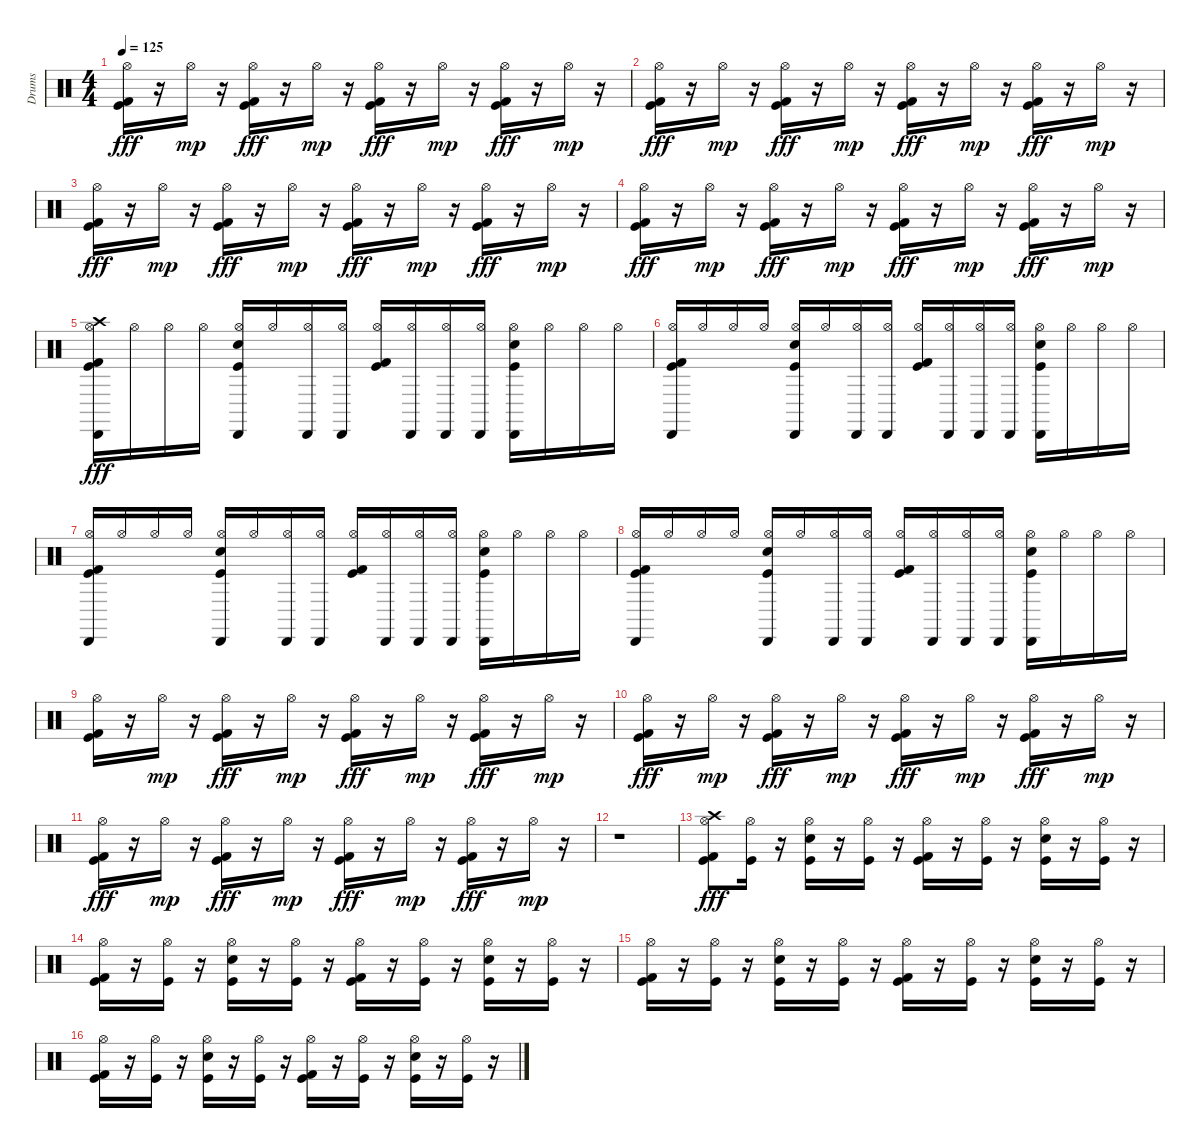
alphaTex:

\track ("Drums" "Drums") {instrument percussion}
\staff {score}
\articulation defaults
\ts (4 4)
\tempo 125
\clef neutral
\ks c
("Kick (hit)" "Kick (hit) 2" "Hi-Hat (open)").16{dy fff} r.16 "Hi-Hat (open)".16{dy mp} r.16 ("Kick (hit) 2" "Kick (hit)" "Hi-Hat (open)").16{dy fff} r.16 "Hi-Hat (open)".16{dy mp} r.16 ("Kick (hit) 2" "Kick (hit)" "Hi-Hat (open)").16{dy fff} r.16 "Hi-Hat (open)".16{dy mp} r.16 ("Kick (hit) 2" "Kick (hit)" "Hi-Hat (open)").16{dy fff} r.16 "Hi-Hat (open)".16{dy mp} r.16 |
("Hi-Hat (open)" "Kick (hit) 2" "Kick (hit)").16{dy fff} r.16 "Hi-Hat (open)".16{dy mp} r.16 ("Kick (hit) 2" "Kick (hit)" "Hi-Hat (open)").16{dy fff} r.16 "Hi-Hat (open)".16{dy mp} r.16 ("Kick (hit) 2" "Kick (hit)" "Hi-Hat (open)").16{dy fff} r.16 "Hi-Hat (open)".16{dy mp} r.16 ("Kick (hit) 2" "Kick (hit)" "Hi-Hat (open)").16{dy fff} r.16 "Hi-Hat (open)".16{dy mp} r.16 |
("Hi-Hat (open)" "Kick (hit) 2" "Kick (hit)").16{dy fff} r.16 "Hi-Hat (open)".16{dy mp} r.16 ("Kick (hit) 2" "Kick (hit)" "Hi-Hat (open)").16{dy fff} r.16 "Hi-Hat (open)".16{dy mp} r.16 ("Kick (hit) 2" "Kick (hit)" "Hi-Hat (open)").16{dy fff} r.16 "Hi-Hat (open)".16{dy mp} r.16 ("Kick (hit) 2" "Kick (hit)" "Hi-Hat (open)").16{dy fff} r.16 "Hi-Hat (open)".16{dy mp} r.16 |
("Hi-Hat (open)" "Kick (hit) 2" "Kick (hit)").16{dy fff} r.16 "Hi-Hat (open)".16{dy mp} r.16 ("Kick (hit) 2" "Kick (hit)" "Hi-Hat (open)").16{dy fff} r.16 "Hi-Hat (open)".16{dy mp} r.16 ("Kick (hit) 2" "Kick (hit)" "Hi-Hat (open)").16{dy fff} r.16 "Hi-Hat (open)".16{dy mp} r.16 ("Kick (hit) 2" "Kick (hit)" "Hi-Hat (open)").16{dy fff} r.16 "Hi-Hat (open)".16{dy mp} r.16 |
("Kick (hit) 2" "Kick (hit)" "Cabasa (hit)" "Crash high (hit)" "Hi-Hat (open)").16{dy fff} "Hi-Hat (open)".16 "Hi-Hat (open)".16 "Hi-Hat (open)".16 ("Kick (hit)" "Cabasa (hit)" "Snare (hit) 2" "Hi-Hat (open)").16 "Hi-Hat (open)".16 ("Cabasa (hit)" "Hi-Hat (open)").16 ("Cabasa (hit)" "Hi-Hat (open)").16 ("Kick (hit) 2" "Kick (hit)" "Hi-Hat (open)").16 ("Cabasa (hit)" "Hi-Hat (open)").16 ("Cabasa (hit)" "Hi-Hat (open)").16 ("Cabasa (hit)" "Hi-Hat (open)").16 ("Kick (hit)" "Cabasa (hit)" "Snare (hit) 2" "Hi-Hat (open)").16 "Hi-Hat (open)".16 "Hi-Hat (open)".16 "Hi-Hat (open)".16 |
("Kick (hit) 2" "Kick (hit)" "Cabasa (hit)" "Hi-Hat (open)").16 "Hi-Hat (open)".16 "Hi-Hat (open)".16 "Hi-Hat (open)".16 ("Kick (hit)" "Cabasa (hit)" "Snare (hit) 2" "Hi-Hat (open)").16 "Hi-Hat (open)".16 ("Cabasa (hit)" "Hi-Hat (open)").16 ("Cabasa (hit)" "Hi-Hat (open)").16 ("Kick (hit) 2" "Kick (hit)" "Hi-Hat (open)").16 ("Cabasa (hit)" "Hi-Hat (open)").16 ("Cabasa (hit)" "Hi-Hat (open)").16 ("Cabasa (hit)" "Hi-Hat (open)").16 ("Kick (hit)" "Cabasa (hit)" "Snare (hit) 2" "Hi-Hat (open)").16 "Hi-Hat (open)".16 "Hi-Hat (open)".16 "Hi-Hat (open)".16 |
("Kick (hit) 2" "Kick (hit)" "Cabasa (hit)" "Hi-Hat (open)").16 "Hi-Hat (open)".16 "Hi-Hat (open)".16 "Hi-Hat (open)".16 ("Kick (hit)" "Cabasa (hit)" "Snare (hit) 2" "Hi-Hat (open)").16 "Hi-Hat (open)".16 ("Cabasa (hit)" "Hi-Hat (open)").16 ("Cabasa (hit)" "Hi-Hat (open)").16 ("Kick (hit) 2" "Kick (hit)" "Hi-Hat (open)").16 ("Cabasa (hit)" "Hi-Hat (open)").16 ("Cabasa (hit)" "Hi-Hat (open)").16 ("Cabasa (hit)" "Hi-Hat (open)").16 ("Kick (hit)" "Cabasa (hit)" "Snare (hit) 2" "Hi-Hat (open)").16 "Hi-Hat (open)".16 "Hi-Hat (open)".16 "Hi-Hat (open)".16 |
("Kick (hit) 2" "Kick (hit)" "Cabasa (hit)" "Hi-Hat (open)").16 "Hi-Hat (open)".16 "Hi-Hat (open)".16 "Hi-Hat (open)".16 ("Kick (hit)" "Cabasa (hit)" "Snare (hit) 2" "Hi-Hat (open)").16 "Hi-Hat (open)".16 ("Cabasa (hit)" "Hi-Hat (open)").16 ("Cabasa (hit)" "Hi-Hat (open)").16 ("Kick (hit) 2" "Kick (hit)" "Hi-Hat (open)").16 ("Cabasa (hit)" "Hi-Hat (open)").16 ("Cabasa (hit)" "Hi-Hat (open)").16 ("Cabasa (hit)" "Hi-Hat (open)").16 ("Kick (hit)" "Cabasa (hit)" "Snare (hit) 2" "Hi-Hat (open)").16 "Hi-Hat (open)".16 "Hi-Hat (open)".16 "Hi-Hat (open)".16 |
("Kick (hit)" "Kick (hit) 2" "Hi-Hat (open)").16 r.16 "Hi-Hat (open)".16{dy mp} r.16 ("Kick (hit) 2" "Kick (hit)" "Hi-Hat (open)").16{dy fff} r.16 "Hi-Hat (open)".16{dy mp} r.16 ("Kick (hit) 2" "Kick (hit)" "Hi-Hat (open)").16{dy fff} r.16 "Hi-Hat (open)".16{dy mp} r.16 ("Kick (hit) 2" "Kick (hit)" "Hi-Hat (open)").16{dy fff} r.16 "Hi-Hat (open)".16{dy mp} r.16 |
("Hi-Hat (open)" "Kick (hit) 2" "Kick (hit)").16{dy fff} r.16 "Hi-Hat (open)".16{dy mp} r.16 ("Kick (hit) 2" "Kick (hit)" "Hi-Hat (open)").16{dy fff} r.16 "Hi-Hat (open)".16{dy mp} r.16 ("Kick (hit) 2" "Kick (hit)" "Hi-Hat (open)").16{dy fff} r.16 "Hi-Hat (open)".16{dy mp} r.16 ("Kick (hit) 2" "Kick (hit)" "Hi-Hat (open)").16{dy fff} r.16 "Hi-Hat (open)".16{dy mp} r.16 |
("Hi-Hat (open)" "Kick (hit) 2" "Kick (hit)").16{dy fff} r.16 "Hi-Hat (open)".16{dy mp} r.16 ("Kick (hit) 2" "Kick (hit)" "Hi-Hat (open)").16{dy fff} r.16 "Hi-Hat (open)".16{dy mp} r.16 ("Kick (hit) 2" "Kick (hit)" "Hi-Hat (open)").16{dy fff} r.16 "Hi-Hat (open)".16{dy mp} r.16 ("Kick (hit) 2" "Kick (hit)" "Hi-Hat (open)").16{dy fff} r.16 "Hi-Hat (open)".16{dy mp} r.16 |
r.1 |
("Kick (hit) 2" "Kick (hit)" "Hi-Hat (open)" "Crash high (hit)").8{dy fff} ("Kick (hit)" "Hi-Hat (open)").16 r.16 ("Kick (hit)" "Snare (hit) 2" "Hi-Hat (open)").16 r.16 ("Kick (hit)" "Hi-Hat (open)").16 r.16 ("Kick (hit) 2" "Kick (hit)" "Hi-Hat (open)").16 r.16 ("Kick (hit)" "Hi-Hat (open)").16 r.16 ("Kick (hit)" "Snare (hit) 2" "Hi-Hat (open)").16 r.16 ("Kick (hit)" "Hi-Hat (open)").16 r.16 |
("Kick (hit) 2" "Kick (hit)" "Hi-Hat (open)").16 r.16 ("Kick (hit)" "Hi-Hat (open)").16 r.16 ("Kick (hit)" "Snare (hit) 2" "Hi-Hat (open)").16 r.16 ("Kick (hit)" "Hi-Hat (open)").16 r.16 ("Kick (hit) 2" "Kick (hit)" "Hi-Hat (open)").16 r.16 ("Kick (hit)" "Hi-Hat (open)").16 r.16 ("Kick (hit)" "Snare (hit) 2" "Hi-Hat (open)").16 r.16 ("Kick (hit)" "Hi-Hat (open)").16 r.16 |
("Kick (hit) 2" "Kick (hit)" "Hi-Hat (open)").16 r.16 ("Kick (hit)" "Hi-Hat (open)").16 r.16 ("Kick (hit)" "Snare (hit) 2" "Hi-Hat (open)").16 r.16 ("Kick (hit)" "Hi-Hat (open)").16 r.16 ("Kick (hit) 2" "Kick (hit)" "Hi-Hat (open)").16 r.16 ("Kick (hit)" "Hi-Hat (open)").16 r.16 ("Kick (hit)" "Snare (hit) 2" "Hi-Hat (open)").16 r.16 ("Kick (hit)" "Hi-Hat (open)").16 r.16 |
("Kick (hit) 2" "Kick (hit)" "Hi-Hat (open)").16 r.16 ("Kick (hit)" "Hi-Hat (open)").16 r.16 ("Kick (hit)" "Snare (hit) 2" "Hi-Hat (open)").16 r.16 ("Kick (hit)" "Hi-Hat (open)").16 r.16 ("Kick (hit) 2" "Kick (hit)" "Hi-Hat (open)").16 r.16 ("Kick (hit)" "Hi-Hat (open)").16 r.16 ("Kick (hit)" "Snare (hit) 2" "Hi-Hat (open)").16 r.16 ("Kick (hit)" "Hi-Hat (open)").16 r.16
